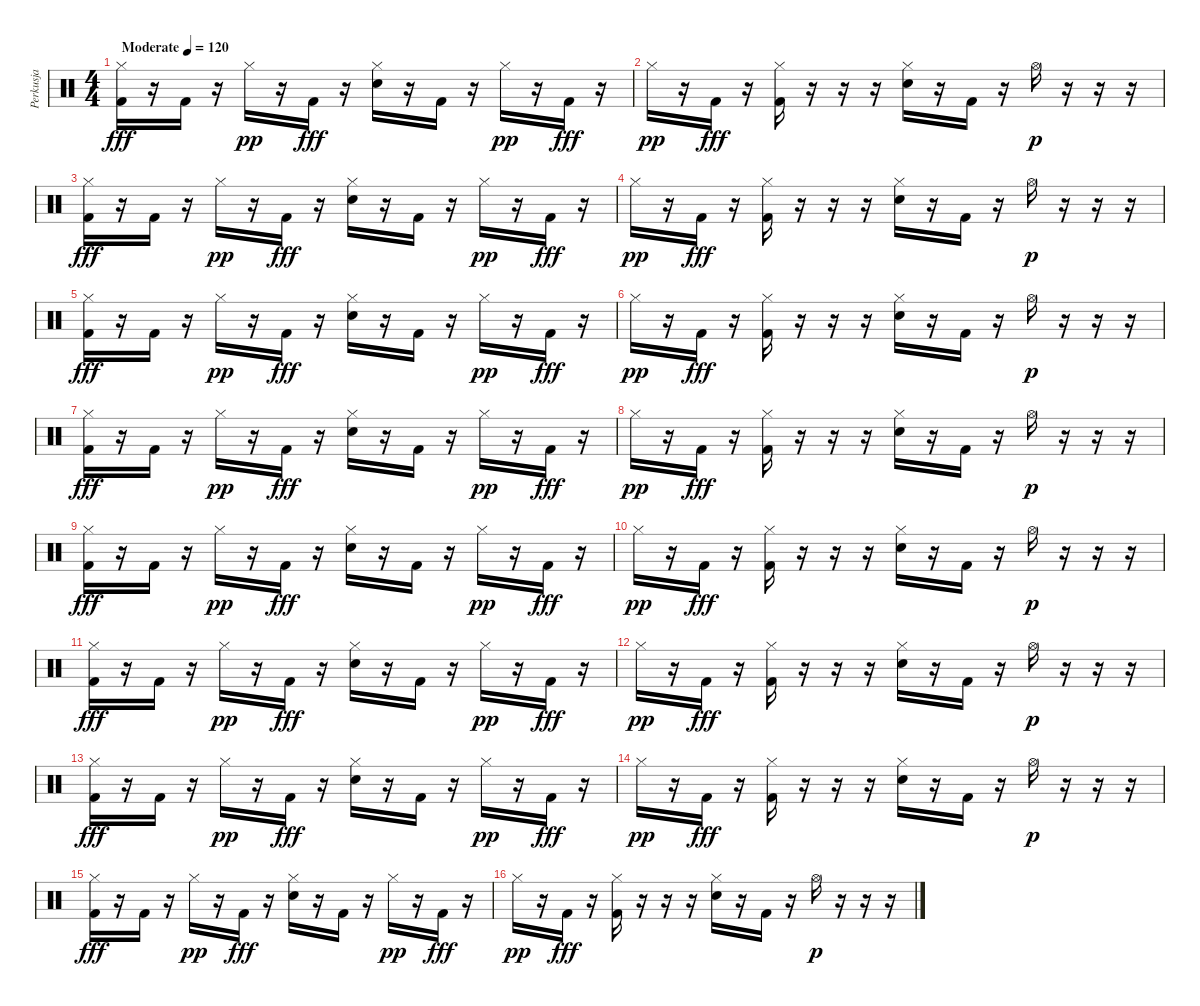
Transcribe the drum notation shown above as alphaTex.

\track ("Perkusja" "Perkusja") {instrument percussion}
\staff {score}
\articulation defaults
\ts (4 4)
\tempo (120 "Moderate")
\clef neutral
\ks c
("Hi-Hat (closed)" "Kick (hit) 2").16{dy fff} r.16 "Kick (hit) 2".16 r.16 "Hi-Hat (closed)".16{dy pp} r.16 "Kick (hit) 2".16{dy fff} r.16 ("Hi-Hat (closed)" "Electric Snare (hit)").16 r.16 "Kick (hit) 2".16 r.16 "Hi-Hat (closed)".16{dy pp} r.16 "Kick (hit) 2".16{dy fff} r.16 |
"Hi-Hat (closed)".16{dy pp} r.16 "Kick (hit) 2".16{dy fff} r.16 ("Hi-Hat (closed)" "Kick (hit) 2").16 r.16 r.16 r.16 ("Hi-Hat (closed)" "Electric Snare (hit)").16 r.16 "Kick (hit) 2".16 r.16 "Hi-Hat (open)".16{dy p} r.16 r.16 r.16 |
("Hi-Hat (closed)" "Kick (hit) 2").16{dy fff} r.16 "Kick (hit) 2".16 r.16 "Hi-Hat (closed)".16{dy pp} r.16 "Kick (hit) 2".16{dy fff} r.16 ("Hi-Hat (closed)" "Electric Snare (hit)").16 r.16 "Kick (hit) 2".16 r.16 "Hi-Hat (closed)".16{dy pp} r.16 "Kick (hit) 2".16{dy fff} r.16 |
"Hi-Hat (closed)".16{dy pp} r.16 "Kick (hit) 2".16{dy fff} r.16 ("Hi-Hat (closed)" "Kick (hit) 2").16 r.16 r.16 r.16 ("Hi-Hat (closed)" "Electric Snare (hit)").16 r.16 "Kick (hit) 2".16 r.16 "Hi-Hat (open)".16{dy p} r.16 r.16 r.16 |
("Hi-Hat (closed)" "Kick (hit) 2").16{dy fff} r.16 "Kick (hit) 2".16 r.16 "Hi-Hat (closed)".16{dy pp} r.16 "Kick (hit) 2".16{dy fff} r.16 ("Hi-Hat (closed)" "Electric Snare (hit)").16 r.16 "Kick (hit) 2".16 r.16 "Hi-Hat (closed)".16{dy pp} r.16 "Kick (hit) 2".16{dy fff} r.16 |
"Hi-Hat (closed)".16{dy pp} r.16 "Kick (hit) 2".16{dy fff} r.16 ("Hi-Hat (closed)" "Kick (hit) 2").16 r.16 r.16 r.16 ("Hi-Hat (closed)" "Electric Snare (hit)").16 r.16 "Kick (hit) 2".16 r.16 "Hi-Hat (open)".16{dy p} r.16 r.16 r.16 |
("Hi-Hat (closed)" "Kick (hit) 2").16{dy fff} r.16 "Kick (hit) 2".16 r.16 "Hi-Hat (closed)".16{dy pp} r.16 "Kick (hit) 2".16{dy fff} r.16 ("Hi-Hat (closed)" "Electric Snare (hit)").16 r.16 "Kick (hit) 2".16 r.16 "Hi-Hat (closed)".16{dy pp} r.16 "Kick (hit) 2".16{dy fff} r.16 |
"Hi-Hat (closed)".16{dy pp} r.16 "Kick (hit) 2".16{dy fff} r.16 ("Hi-Hat (closed)" "Kick (hit) 2").16 r.16 r.16 r.16 ("Hi-Hat (closed)" "Electric Snare (hit)").16 r.16 "Kick (hit) 2".16 r.16 "Hi-Hat (open)".16{dy p} r.16 r.16 r.16 |
("Hi-Hat (closed)" "Kick (hit) 2").16{dy fff} r.16 "Kick (hit) 2".16 r.16 "Hi-Hat (closed)".16{dy pp} r.16 "Kick (hit) 2".16{dy fff} r.16 ("Hi-Hat (closed)" "Electric Snare (hit)").16 r.16 "Kick (hit) 2".16 r.16 "Hi-Hat (closed)".16{dy pp} r.16 "Kick (hit) 2".16{dy fff} r.16 |
"Hi-Hat (closed)".16{dy pp} r.16 "Kick (hit) 2".16{dy fff} r.16 ("Hi-Hat (closed)" "Kick (hit) 2").16 r.16 r.16 r.16 ("Hi-Hat (closed)" "Electric Snare (hit)").16 r.16 "Kick (hit) 2".16 r.16 "Hi-Hat (open)".16{dy p} r.16 r.16 r.16 |
("Hi-Hat (closed)" "Kick (hit) 2").16{dy fff} r.16 "Kick (hit) 2".16 r.16 "Hi-Hat (closed)".16{dy pp} r.16 "Kick (hit) 2".16{dy fff} r.16 ("Hi-Hat (closed)" "Electric Snare (hit)").16 r.16 "Kick (hit) 2".16 r.16 "Hi-Hat (closed)".16{dy pp} r.16 "Kick (hit) 2".16{dy fff} r.16 |
"Hi-Hat (closed)".16{dy pp} r.16 "Kick (hit) 2".16{dy fff} r.16 ("Hi-Hat (closed)" "Kick (hit) 2").16 r.16 r.16 r.16 ("Hi-Hat (closed)" "Electric Snare (hit)").16 r.16 "Kick (hit) 2".16 r.16 "Hi-Hat (open)".16{dy p} r.16 r.16 r.16 |
("Hi-Hat (closed)" "Kick (hit) 2").16{dy fff} r.16 "Kick (hit) 2".16 r.16 "Hi-Hat (closed)".16{dy pp} r.16 "Kick (hit) 2".16{dy fff} r.16 ("Hi-Hat (closed)" "Electric Snare (hit)").16 r.16 "Kick (hit) 2".16 r.16 "Hi-Hat (closed)".16{dy pp} r.16 "Kick (hit) 2".16{dy fff} r.16 |
"Hi-Hat (closed)".16{dy pp} r.16 "Kick (hit) 2".16{dy fff} r.16 ("Hi-Hat (closed)" "Kick (hit) 2").16 r.16 r.16 r.16 ("Hi-Hat (closed)" "Electric Snare (hit)").16 r.16 "Kick (hit) 2".16 r.16 "Hi-Hat (open)".16{dy p} r.16 r.16 r.16 |
("Hi-Hat (closed)" "Kick (hit) 2").16{dy fff} r.16 "Kick (hit) 2".16 r.16 "Hi-Hat (closed)".16{dy pp} r.16 "Kick (hit) 2".16{dy fff} r.16 ("Hi-Hat (closed)" "Electric Snare (hit)").16 r.16 "Kick (hit) 2".16 r.16 "Hi-Hat (closed)".16{dy pp} r.16 "Kick (hit) 2".16{dy fff} r.16 |
"Hi-Hat (closed)".16{dy pp} r.16 "Kick (hit) 2".16{dy fff} r.16 ("Hi-Hat (closed)" "Kick (hit) 2").16 r.16 r.16 r.16 ("Hi-Hat (closed)" "Electric Snare (hit)").16 r.16 "Kick (hit) 2".16 r.16 "Hi-Hat (open)".16{dy p} r.16 r.16 r.16
